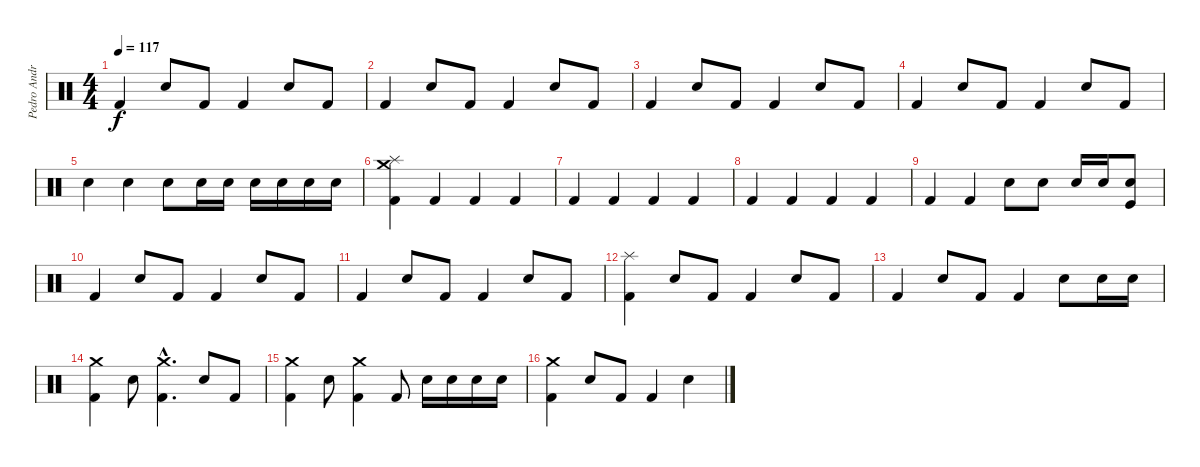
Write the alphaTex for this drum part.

\track ("Pedro Andreu - Batería" "Pedro Andr") {instrument percussion}
\staff {score}
\articulation defaults
\ts (4 4)
\tempo 117
\clef neutral
\ks c "Kick (hit) 2".4{dy f} "Snare (hit) 2".8 "Kick (hit) 2".8 "Kick (hit) 2".4 "Snare (hit) 2".8 "Kick (hit) 2".8
|
"Kick (hit) 2".4 "Snare (hit) 2".8 "Kick (hit) 2".8 "Kick (hit) 2".4 "Snare (hit) 2".8 "Kick (hit) 2".8 |
"Kick (hit) 2".4 "Snare (hit) 2".8 "Kick (hit) 2".8 "Kick (hit) 2".4 "Snare (hit) 2".8 "Kick (hit) 2".8 |
"Kick (hit) 2".4 "Snare (hit) 2".8 "Kick (hit) 2".8 "Kick (hit) 2".4 "Snare (hit) 2".8 "Kick (hit) 2".8 |
"Snare (hit) 2".4 "Snare (hit) 2".4 "Snare (hit) 2".8 "Snare (hit) 2".16 "Snare (hit) 2".16 "Snare (hit) 2".16 "Snare (hit) 2".16 "Snare (hit) 2".16 "Snare (hit) 2".16 |
("Crash medium (hit)" "Splash (hit)" "Kick (hit) 2").4 "Kick (hit) 2".4 "Kick (hit) 2".4 "Kick (hit) 2".4 |
"Kick (hit) 2".4 "Kick (hit) 2".4 "Kick (hit) 2".4 "Kick (hit) 2".4 |
"Kick (hit) 2".4 "Kick (hit) 2".4 "Kick (hit) 2".4 "Kick (hit) 2".4 |
"Kick (hit) 2".4 "Kick (hit) 2".4 "Snare (hit) 2".8 "Snare (hit) 2".8 "Snare (hit) 2".16 "Snare (hit) 2".16 ("Kick (hit)" "Snare (hit) 2").8 |
"Kick (hit) 2".4 "Snare (hit) 2".8 "Kick (hit) 2".8 "Kick (hit) 2".4 "Snare (hit) 2".8 "Kick (hit) 2".8 |
"Kick (hit) 2".4 "Snare (hit) 2".8 "Kick (hit) 2".8 "Kick (hit) 2".4 "Snare (hit) 2".8 "Kick (hit) 2".8 |
("Splash (hit)" "Kick (hit) 2").4 "Snare (hit) 2".8 "Kick (hit) 2".8 "Kick (hit) 2".4 "Snare (hit) 2".8 "Kick (hit) 2".8 |
"Kick (hit) 2".4 "Snare (hit) 2".8 "Kick (hit) 2".8 "Kick (hit) 2".4 "Snare (hit) 2".8 "Snare (hit) 2".16 "Snare (hit) 2".16 |
("Crash medium (hit)" "Kick (hit) 2").4 "Snare (hit) 2".8 ("Crash medium (hit)"{hac} "Kick (hit) 2"{hac}).4{d} "Snare (hit) 2".8 "Kick (hit) 2".8 |
("Crash medium (hit)" "Kick (hit) 2").4 "Snare (hit) 2".8 ("Kick (hit) 2" "Crash medium (hit)").4 "Kick (hit) 2".8 "Snare (hit) 2".16 "Snare (hit) 2".16 "Snare (hit) 2".16 "Snare (hit) 2".16 |
("Crash medium (hit)" "Kick (hit) 2").4 "Snare (hit) 2".8 "Kick (hit) 2".8 "Kick (hit) 2".4 "Snare (hit) 2".4
